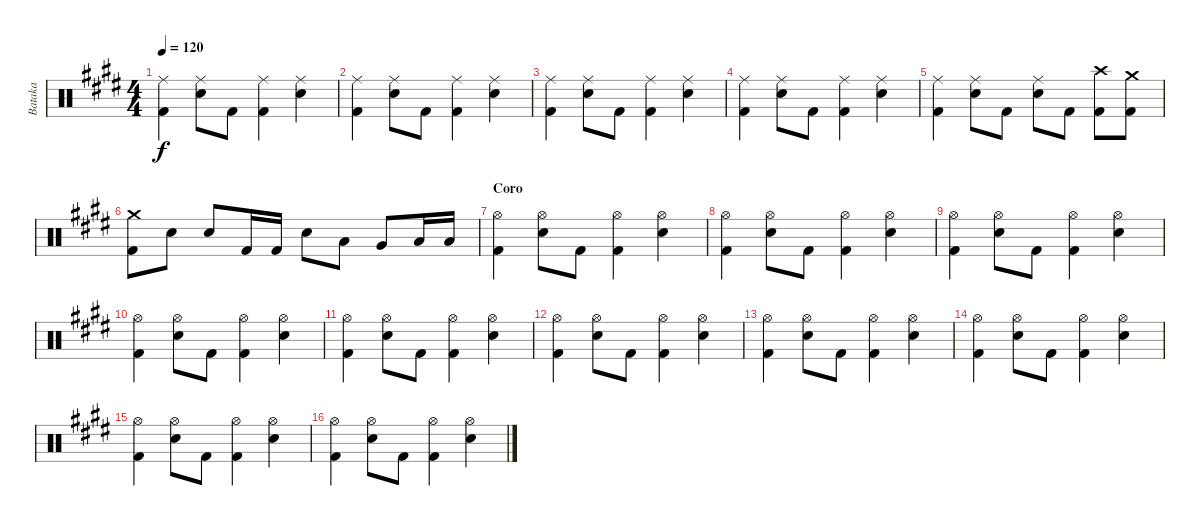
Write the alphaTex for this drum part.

\track ("Bataka" "Bataka") {instrument percussion}
\staff {score}
\articulation defaults
\ts (4 4)
\tempo 120
\clef neutral
\ks e
("Ride (middle)" "Kick (hit) 2").4{dy f} ("Ride (middle)" "Electric Snare (hit)").8 "Kick (hit) 2".8 ("Ride (middle)" "Kick (hit) 2").4 ("Ride (middle)" "Electric Snare (hit)").4 |
("Ride (middle)" "Kick (hit) 2").4 ("Ride (middle)" "Electric Snare (hit)").8 "Kick (hit) 2".8 ("Ride (middle)" "Kick (hit) 2").4 ("Ride (middle)" "Electric Snare (hit)").4 |
("Ride (middle)" "Kick (hit) 2").4 ("Ride (middle)" "Electric Snare (hit)").8 "Kick (hit) 2".8 ("Ride (middle)" "Kick (hit) 2").4 ("Ride (middle)" "Electric Snare (hit)").4 |
("Ride (middle)" "Kick (hit) 2").4 ("Ride (middle)" "Electric Snare (hit)").8 "Kick (hit) 2".8 ("Ride (middle)" "Kick (hit) 2").4 ("Ride (middle)" "Electric Snare (hit)").4 |
("Ride (middle)" "Kick (hit) 2").4 ("Ride (middle)" "Electric Snare (hit)").8 "Kick (hit) 2".8 ("Ride (middle)" "Electric Snare (hit)").8 "Kick (hit) 2".8 ("Crash high (hit)" "Kick (hit) 2").8 ("Crash medium (hit)" "Kick (hit) 2").8 |
("Crash medium (hit)" "Kick (hit) 2").8 "Electric Snare (hit)".8 "Electric Snare (hit)".8 "Kick (hit) 2".16 "Kick (hit) 2".16 "Electric Snare (hit)".8 "Low Tom (hit)".8 "Very Low Tom (hit)".8 "Low Floor Tom (hit)".16 "Low Floor Tom (hit)".16 |
\section ("" "Coro")
("Hi-Hat (open)" "Kick (hit) 2").4 ("Hi-Hat (open)" "Electric Snare (hit)").8 "Kick (hit) 2".8 ("Hi-Hat (open)" "Kick (hit) 2").4 ("Hi-Hat (open)" "Electric Snare (hit)").4 |
("Hi-Hat (open)" "Kick (hit) 2").4 ("Hi-Hat (open)" "Electric Snare (hit)").8 "Kick (hit) 2".8 ("Hi-Hat (open)" "Kick (hit) 2").4 ("Hi-Hat (open)" "Electric Snare (hit)").4 |
("Hi-Hat (open)" "Kick (hit) 2").4 ("Hi-Hat (open)" "Electric Snare (hit)").8 "Kick (hit) 2".8 ("Hi-Hat (open)" "Kick (hit) 2").4 ("Hi-Hat (open)" "Electric Snare (hit)").4 |
("Hi-Hat (open)" "Kick (hit) 2").4 ("Hi-Hat (open)" "Electric Snare (hit)").8 "Kick (hit) 2".8 ("Hi-Hat (open)" "Kick (hit) 2").4 ("Hi-Hat (open)" "Electric Snare (hit)").4 |
("Hi-Hat (open)" "Kick (hit) 2").4 ("Hi-Hat (open)" "Electric Snare (hit)").8 "Kick (hit) 2".8 ("Hi-Hat (open)" "Kick (hit) 2").4 ("Hi-Hat (open)" "Electric Snare (hit)").4 |
("Hi-Hat (open)" "Kick (hit) 2").4 ("Hi-Hat (open)" "Electric Snare (hit)").8 "Kick (hit) 2".8 ("Hi-Hat (open)" "Kick (hit) 2").4 ("Hi-Hat (open)" "Electric Snare (hit)").4 |
("Hi-Hat (open)" "Kick (hit) 2").4 ("Hi-Hat (open)" "Electric Snare (hit)").8 "Kick (hit) 2".8 ("Hi-Hat (open)" "Kick (hit) 2").4 ("Hi-Hat (open)" "Electric Snare (hit)").4 |
("Hi-Hat (open)" "Kick (hit) 2").4 ("Hi-Hat (open)" "Electric Snare (hit)").8 "Kick (hit) 2".8 ("Hi-Hat (open)" "Kick (hit) 2").4 ("Hi-Hat (open)" "Electric Snare (hit)").4 |
("Hi-Hat (open)" "Kick (hit) 2").4 ("Hi-Hat (open)" "Electric Snare (hit)").8 "Kick (hit) 2".8 ("Hi-Hat (open)" "Kick (hit) 2").4 ("Hi-Hat (open)" "Electric Snare (hit)").4 |
("Hi-Hat (open)" "Kick (hit) 2").4 ("Hi-Hat (open)" "Electric Snare (hit)").8 "Kick (hit) 2".8 ("Hi-Hat (open)" "Kick (hit) 2").4 ("Hi-Hat (open)" "Electric Snare (hit)").4
